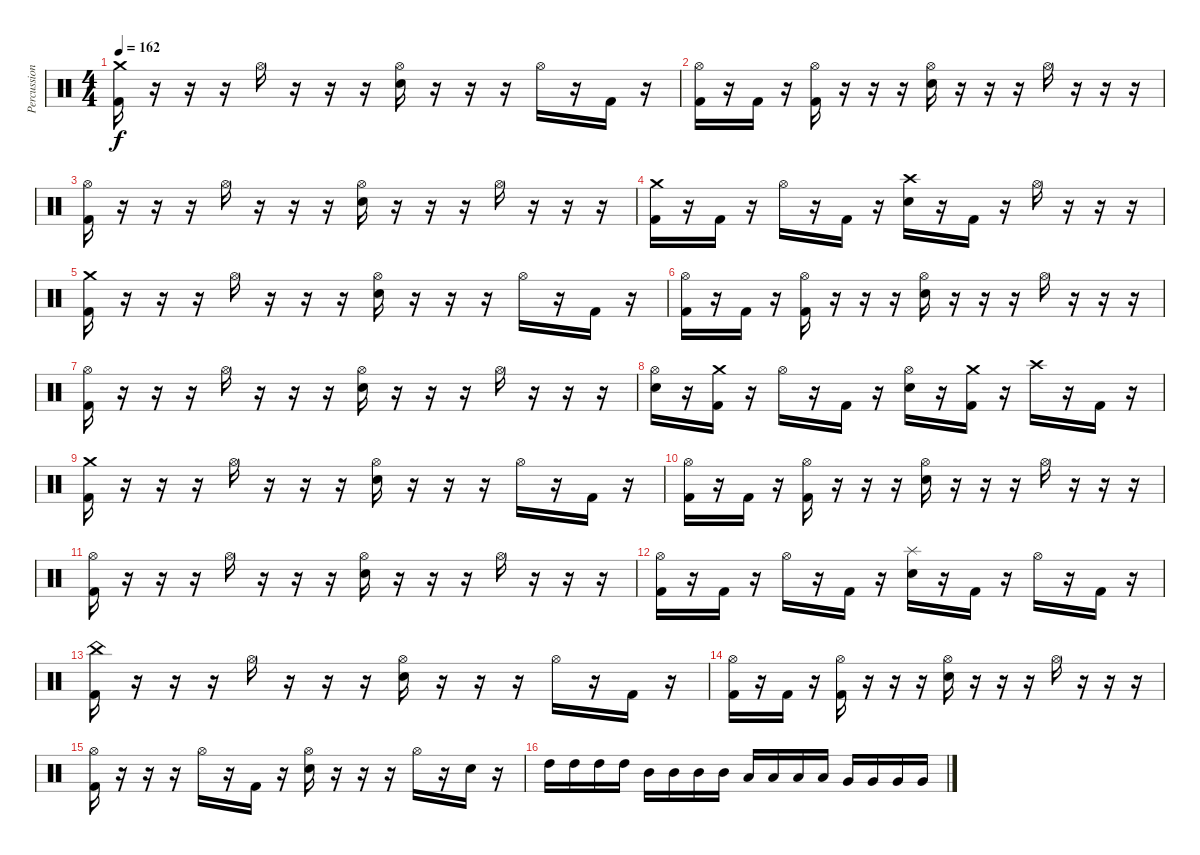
\track ("Percussion" "Percussion") {instrument percussion}
\staff {score}
\articulation defaults
\ts (4 4)
\tempo 162
\clef neutral
\ks c
("Crash medium (hit)" "Kick (hit) 2").16{dy f} r.16 r.16 r.16 "Hi-Hat (open)".16 r.16 r.16 r.16 ("Hi-Hat (open)" "Electric Snare (hit)").16 r.16 r.16 r.16 "Hi-Hat (open)".16 r.16 "Kick (hit) 2".16 r.16 |
("Hi-Hat (open)" "Kick (hit) 2").16 r.16 "Kick (hit) 2".16 r.16 ("Hi-Hat (open)" "Kick (hit) 2").16 r.16 r.16 r.16 ("Hi-Hat (open)" "Electric Snare (hit)").16 r.16 r.16 r.16 "Hi-Hat (open)".16 r.16 r.16 r.16 |
("Hi-Hat (open)" "Kick (hit) 2").16 r.16 r.16 r.16 "Hi-Hat (open)".16 r.16 r.16 r.16 ("Hi-Hat (open)" "Electric Snare (hit)").16 r.16 r.16 r.16 "Hi-Hat (open)".16 r.16 r.16 r.16 |
("Crash medium (hit)" "Kick (hit) 2").16 r.16 "Kick (hit) 2".16 r.16 "Hi-Hat (open)".16 r.16 "Kick (hit) 2".16 r.16 ("Crash high (hit)" "Electric Snare (hit)").16 r.16 "Kick (hit) 2".16 r.16 "Hi-Hat (open)".16 r.16 r.16 r.16 |
("Crash medium (hit)" "Kick (hit) 2").16 r.16 r.16 r.16 "Hi-Hat (open)".16 r.16 r.16 r.16 ("Hi-Hat (open)" "Electric Snare (hit)").16 r.16 r.16 r.16 "Hi-Hat (open)".16 r.16 "Kick (hit) 2".16 r.16 |
("Hi-Hat (open)" "Kick (hit) 2").16 r.16 "Kick (hit) 2".16 r.16 ("Hi-Hat (open)" "Kick (hit) 2").16 r.16 r.16 r.16 ("Hi-Hat (open)" "Electric Snare (hit)").16 r.16 r.16 r.16 "Hi-Hat (open)".16 r.16 r.16 r.16 |
("Hi-Hat (open)" "Kick (hit) 2").16 r.16 r.16 r.16 "Hi-Hat (open)".16 r.16 r.16 r.16 ("Hi-Hat (open)" "Electric Snare (hit)").16 r.16 r.16 r.16 "Hi-Hat (open)".16 r.16 r.16 r.16 |
("Hi-Hat (open)" "Electric Snare (hit)").16 r.16 ("Crash medium (hit)" "Kick (hit) 2").16 r.16 "Hi-Hat (open)".16 r.16 "Kick (hit) 2".16 r.16 ("Hi-Hat (open)" "Electric Snare (hit)").16 r.16 ("Crash medium (hit)" "Kick (hit) 2").16 r.16 "Crash high (hit)".16 r.16 "Kick (hit) 2".16 r.16 |
("Crash medium (hit)" "Kick (hit) 2").16 r.16 r.16 r.16 "Hi-Hat (open)".16 r.16 r.16 r.16 ("Hi-Hat (open)" "Electric Snare (hit)").16 r.16 r.16 r.16 "Hi-Hat (open)".16 r.16 "Kick (hit) 2".16 r.16 |
("Hi-Hat (open)" "Kick (hit) 2").16 r.16 "Kick (hit) 2".16 r.16 ("Hi-Hat (open)" "Kick (hit) 2").16 r.16 r.16 r.16 ("Hi-Hat (open)" "Electric Snare (hit)").16 r.16 r.16 r.16 "Hi-Hat (open)".16 r.16 r.16 r.16 |
("Hi-Hat (open)" "Kick (hit) 2").16 r.16 r.16 r.16 "Hi-Hat (open)".16 r.16 r.16 r.16 ("Hi-Hat (open)" "Electric Snare (hit)").16 r.16 r.16 r.16 "Hi-Hat (open)".16 r.16 r.16 r.16 |
("Hi-Hat (open)" "Kick (hit) 2").16 r.16 "Kick (hit) 2".16 r.16 "Hi-Hat (open)".16 r.16 "Kick (hit) 2".16 r.16 ("Splash (hit)" "Electric Snare (hit)").16 r.16 "Kick (hit) 2".16 r.16 "Hi-Hat (open)".16 r.16 "Kick (hit) 2".16 r.16 |
("China (hit)" "Kick (hit) 2").16 r.16 r.16 r.16 "Hi-Hat (open)".16 r.16 r.16 r.16 ("Hi-Hat (open)" "Electric Snare (hit)").16 r.16 r.16 r.16 "Hi-Hat (open)".16 r.16 "Kick (hit) 2".16 r.16 |
("Hi-Hat (open)" "Kick (hit) 2").16 r.16 "Kick (hit) 2".16 r.16 ("Hi-Hat (open)" "Kick (hit) 2").16 r.16 r.16 r.16 ("Hi-Hat (open)" "Electric Snare (hit)").16 r.16 r.16 r.16 "Hi-Hat (open)".16 r.16 r.16 r.16 |
("Hi-Hat (open)" "Kick (hit) 2").16 r.16 r.16 r.16 "Hi-Hat (open)".16 r.16 "Kick (hit) 2".16 r.16 ("Hi-Hat (open)" "Electric Snare (hit)").16 r.16 r.16 r.16 "Hi-Hat (open)".16 r.16 "Electric Snare (hit)".16 r.16 |
"High Tom (hit)".16 "High Tom (hit)".16 "High Tom (hit)".16 "High Tom (hit)".16 "Mid Tom (hit)".16 "Mid Tom (hit)".16 "Mid Tom (hit)".16 "Mid Tom (hit)".16 "Low Tom (hit)".16 "Low Tom (hit)".16 "Low Tom (hit)".16 "Low Tom (hit)".16 "Very Low Tom (hit)".16 "Very Low Tom (hit)".16 "Very Low Tom (hit)".16 "Very Low Tom (hit)".16
